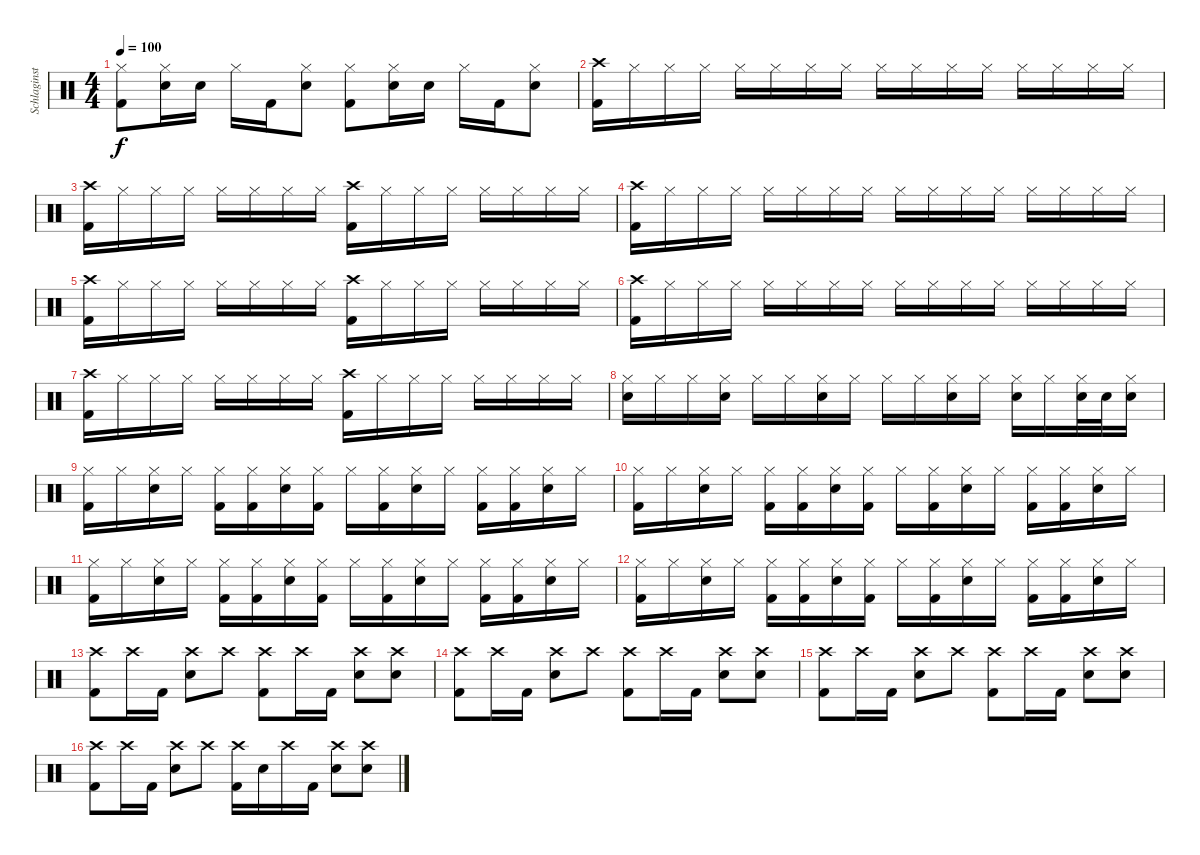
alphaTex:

\track ("Schlaginstrumente - Auswahl" "Schlaginst") {instrument percussion}
\staff {score}
\articulation defaults
\ts (4 4)
\tempo 100
\clef neutral
\ks c
("Hi-Hat (closed)" "Kick (hit) 2").8{dy f} ("Hi-Hat (closed)" "Snare (hit) 2").16 "Snare (hit) 2".16 "Hi-Hat (closed)".16 "Kick (hit) 2".16 ("Hi-Hat (closed)" "Snare (hit) 2").8 ("Hi-Hat (closed)" "Kick (hit) 2").8 ("Hi-Hat (closed)" "Snare (hit) 2").16 "Snare (hit) 2".16 "Hi-Hat (closed)".16 "Kick (hit) 2".16 ("Hi-Hat (closed)" "Snare (hit) 2").8 |
("Crash high (hit)" "Kick (hit) 2").16 "Hi-Hat (closed)".16 "Hi-Hat (closed)".16 "Hi-Hat (closed)".16 "Hi-Hat (closed)".16 "Hi-Hat (closed)".16 "Hi-Hat (closed)".16 "Hi-Hat (closed)".16 "Hi-Hat (closed)".16 "Hi-Hat (closed)".16 "Hi-Hat (closed)".16 "Hi-Hat (closed)".16 "Hi-Hat (closed)".16 "Hi-Hat (closed)".16 "Hi-Hat (closed)".16 "Hi-Hat (closed)".16 |
("Crash high (hit)" "Kick (hit) 2").16 "Hi-Hat (closed)".16 "Hi-Hat (closed)".16 "Hi-Hat (closed)".16 "Hi-Hat (closed)".16 "Hi-Hat (closed)".16 "Hi-Hat (closed)".16 "Hi-Hat (closed)".16 ("Crash high (hit)" "Kick (hit) 2").16 "Hi-Hat (closed)".16 "Hi-Hat (closed)".16 "Hi-Hat (closed)".16 "Hi-Hat (closed)".16 "Hi-Hat (closed)".16 "Hi-Hat (closed)".16 "Hi-Hat (closed)".16 |
("Crash high (hit)" "Kick (hit) 2").16 "Hi-Hat (closed)".16 "Hi-Hat (closed)".16 "Hi-Hat (closed)".16 "Hi-Hat (closed)".16 "Hi-Hat (closed)".16 "Hi-Hat (closed)".16 "Hi-Hat (closed)".16 "Hi-Hat (closed)".16 "Hi-Hat (closed)".16 "Hi-Hat (closed)".16 "Hi-Hat (closed)".16 "Hi-Hat (closed)".16 "Hi-Hat (closed)".16 "Hi-Hat (closed)".16 "Hi-Hat (closed)".16 |
("Crash high (hit)" "Kick (hit) 2").16 "Hi-Hat (closed)".16 "Hi-Hat (closed)".16 "Hi-Hat (closed)".16 "Hi-Hat (closed)".16 "Hi-Hat (closed)".16 "Hi-Hat (closed)".16 "Hi-Hat (closed)".16 ("Crash high (hit)" "Kick (hit) 2").16 "Hi-Hat (closed)".16 "Hi-Hat (closed)".16 "Hi-Hat (closed)".16 "Hi-Hat (closed)".16 "Hi-Hat (closed)".16 "Hi-Hat (closed)".16 "Hi-Hat (closed)".16 |
("Crash high (hit)" "Kick (hit) 2").16 "Hi-Hat (closed)".16 "Hi-Hat (closed)".16 "Hi-Hat (closed)".16 "Hi-Hat (closed)".16 "Hi-Hat (closed)".16 "Hi-Hat (closed)".16 "Hi-Hat (closed)".16 "Hi-Hat (closed)".16 "Hi-Hat (closed)".16 "Hi-Hat (closed)".16 "Hi-Hat (closed)".16 "Hi-Hat (closed)".16 "Hi-Hat (closed)".16 "Hi-Hat (closed)".16 "Hi-Hat (closed)".16 |
("Crash high (hit)" "Kick (hit) 2").16 "Hi-Hat (closed)".16 "Hi-Hat (closed)".16 "Hi-Hat (closed)".16 "Hi-Hat (closed)".16 "Hi-Hat (closed)".16 "Hi-Hat (closed)".16 "Hi-Hat (closed)".16 ("Crash high (hit)" "Kick (hit) 2").16 "Hi-Hat (closed)".16 "Hi-Hat (closed)".16 "Hi-Hat (closed)".16 "Hi-Hat (closed)".16 "Hi-Hat (closed)".16 "Hi-Hat (closed)".16 "Hi-Hat (closed)".16 |
("Hi-Hat (closed)" "Snare (hit) 2").16 "Hi-Hat (closed)".16 "Hi-Hat (closed)".16 ("Hi-Hat (closed)" "Snare (hit) 2").16 "Hi-Hat (closed)".16 "Hi-Hat (closed)".16 ("Hi-Hat (closed)" "Snare (hit) 2").16 "Hi-Hat (closed)".16 "Hi-Hat (closed)".16 "Hi-Hat (closed)".16 ("Hi-Hat (closed)" "Snare (hit) 2").16 "Hi-Hat (closed)".16 ("Hi-Hat (closed)" "Snare (hit) 2").16 "Hi-Hat (closed)".16 ("Hi-Hat (closed)" "Snare (hit) 2").32 "Snare (hit) 2".32 ("Hi-Hat (closed)" "Snare (hit) 2").16 |
("Hi-Hat (closed)" "Kick (hit) 2").16 "Hi-Hat (closed)".16 ("Hi-Hat (closed)" "Snare (hit) 2").16 "Hi-Hat (closed)".16 ("Hi-Hat (closed)" "Kick (hit) 2").16 ("Hi-Hat (closed)" "Kick (hit) 2").16 ("Hi-Hat (closed)" "Snare (hit) 2").16 ("Hi-Hat (closed)" "Kick (hit) 2").16 "Hi-Hat (closed)".16 ("Hi-Hat (closed)" "Kick (hit) 2").16 ("Hi-Hat (closed)" "Snare (hit) 2").16 "Hi-Hat (closed)".16 ("Hi-Hat (closed)" "Kick (hit) 2").16 ("Hi-Hat (closed)" "Kick (hit) 2").16 ("Hi-Hat (closed)" "Snare (hit) 2").16 "Hi-Hat (closed)".16 |
("Hi-Hat (closed)" "Kick (hit) 2").16 "Hi-Hat (closed)".16 ("Hi-Hat (closed)" "Snare (hit) 2").16 "Hi-Hat (closed)".16 ("Hi-Hat (closed)" "Kick (hit) 2").16 ("Hi-Hat (closed)" "Kick (hit) 2").16 ("Hi-Hat (closed)" "Snare (hit) 2").16 ("Hi-Hat (closed)" "Kick (hit) 2").16 "Hi-Hat (closed)".16 ("Hi-Hat (closed)" "Kick (hit) 2").16 ("Hi-Hat (closed)" "Snare (hit) 2").16 "Hi-Hat (closed)".16 ("Hi-Hat (closed)" "Kick (hit) 2").16 ("Hi-Hat (closed)" "Kick (hit) 2").16 ("Hi-Hat (closed)" "Snare (hit) 2").16 "Hi-Hat (closed)".16 |
("Hi-Hat (closed)" "Kick (hit) 2").16 "Hi-Hat (closed)".16 ("Hi-Hat (closed)" "Snare (hit) 2").16 "Hi-Hat (closed)".16 ("Hi-Hat (closed)" "Kick (hit) 2").16 ("Hi-Hat (closed)" "Kick (hit) 2").16 ("Hi-Hat (closed)" "Snare (hit) 2").16 ("Hi-Hat (closed)" "Kick (hit) 2").16 "Hi-Hat (closed)".16 ("Hi-Hat (closed)" "Kick (hit) 2").16 ("Hi-Hat (closed)" "Snare (hit) 2").16 "Hi-Hat (closed)".16 ("Hi-Hat (closed)" "Kick (hit) 2").16 ("Hi-Hat (closed)" "Kick (hit) 2").16 ("Hi-Hat (closed)" "Snare (hit) 2").16 "Hi-Hat (closed)".16 |
("Hi-Hat (closed)" "Kick (hit) 2").16 "Hi-Hat (closed)".16 ("Hi-Hat (closed)" "Snare (hit) 2").16 "Hi-Hat (closed)".16 ("Hi-Hat (closed)" "Kick (hit) 2").16 ("Hi-Hat (closed)" "Kick (hit) 2").16 ("Hi-Hat (closed)" "Snare (hit) 2").16 ("Hi-Hat (closed)" "Kick (hit) 2").16 "Hi-Hat (closed)".16 ("Hi-Hat (closed)" "Kick (hit) 2").16 ("Hi-Hat (closed)" "Snare (hit) 2").16 "Hi-Hat (closed)".16 ("Hi-Hat (closed)" "Kick (hit) 2").16 ("Hi-Hat (closed)" "Kick (hit) 2").16 ("Hi-Hat (closed)" "Snare (hit) 2").16 "Hi-Hat (closed)".16 |
("Crash high (hit)" "Kick (hit) 2").8 "Crash high (hit)".16 "Kick (hit) 2".16 ("Crash high (hit)" "Snare (hit) 2").8 "Crash high (hit)".8 ("Crash high (hit)" "Kick (hit) 2").8 "Crash high (hit)".16 "Kick (hit) 2".16 ("Crash high (hit)" "Snare (hit) 2").8 ("Crash high (hit)" "Snare (hit) 2").8 |
("Crash high (hit)" "Kick (hit) 2").8 "Crash high (hit)".16 "Kick (hit) 2".16 ("Crash high (hit)" "Snare (hit) 2").8 "Crash high (hit)".8 ("Crash high (hit)" "Kick (hit) 2").8 "Crash high (hit)".16 "Kick (hit) 2".16 ("Crash high (hit)" "Snare (hit) 2").8 ("Crash high (hit)" "Snare (hit) 2").8 |
("Crash high (hit)" "Kick (hit) 2").8 "Crash high (hit)".16 "Kick (hit) 2".16 ("Crash high (hit)" "Snare (hit) 2").8 "Crash high (hit)".8 ("Crash high (hit)" "Kick (hit) 2").8 "Crash high (hit)".16 "Kick (hit) 2".16 ("Crash high (hit)" "Snare (hit) 2").8 ("Crash high (hit)" "Snare (hit) 2").8 |
("Crash high (hit)" "Kick (hit) 2").8 "Crash high (hit)".16 "Kick (hit) 2".16 ("Crash high (hit)" "Snare (hit) 2").8 "Crash high (hit)".8 ("Crash high (hit)" "Kick (hit) 2").16 "Snare (hit) 2".16 "Crash high (hit)".16 "Kick (hit) 2".16 ("Crash high (hit)" "Snare (hit) 2").8 ("Crash high (hit)" "Snare (hit) 2").8
